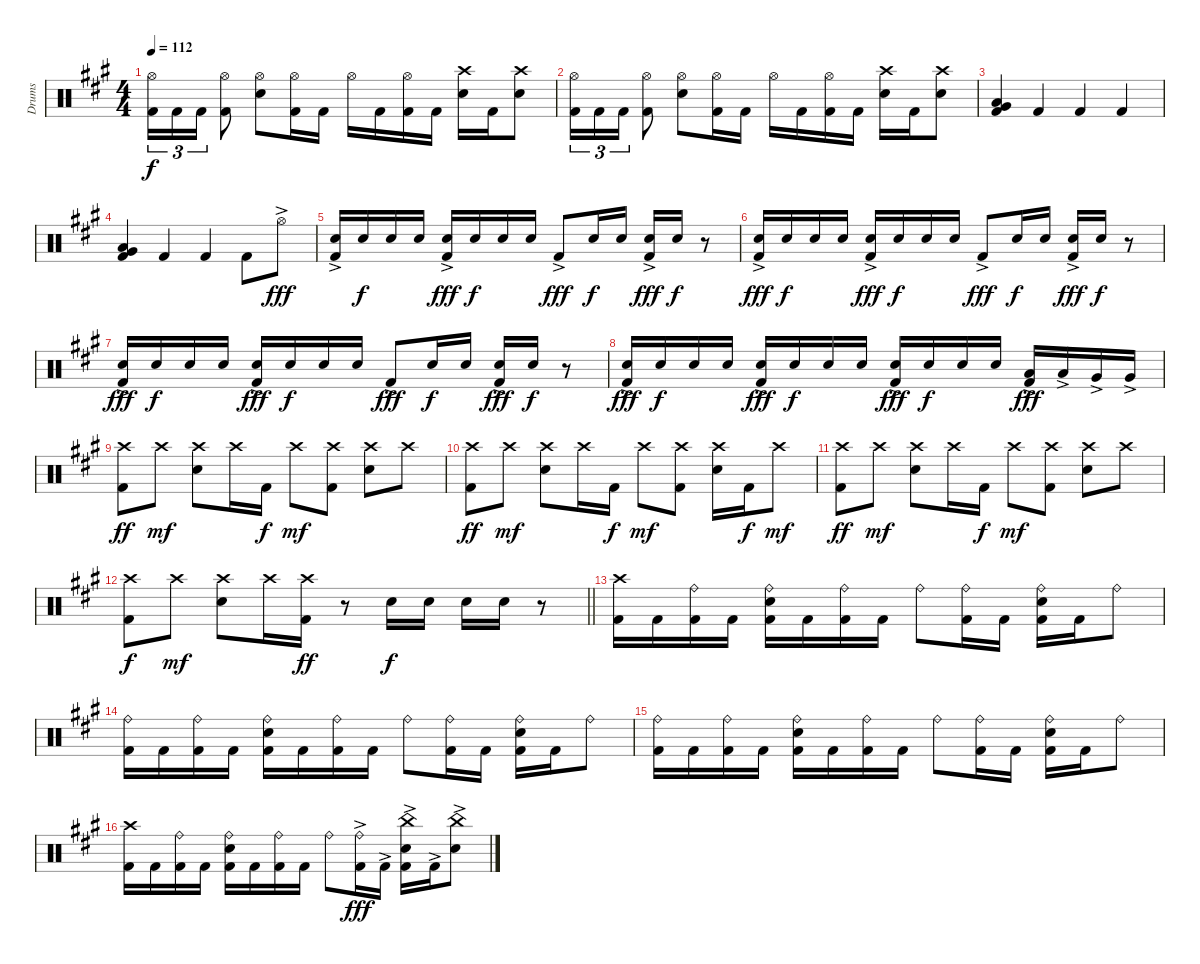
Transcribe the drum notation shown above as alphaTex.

\track ("Drums" "Drums") {instrument percussion}
\staff {score}
\articulation defaults
\ts (4 4)
\tempo 112
\clef neutral
\ks f#minor
("Hi-Hat (open)" "Kick (hit) 2").16{tu (3 2) dy f} "Kick (hit) 2".16{tu (3 2)} "Kick (hit) 2".16{tu (3 2)} ("Hi-Hat (open)" "Kick (hit) 2").8 ("Hi-Hat (open)" "Snare (hit) 2").8 ("Hi-Hat (open)" "Kick (hit) 2").16 "Kick (hit) 2".16 "Hi-Hat (open)".16 "Kick (hit) 2".16 ("Hi-Hat (open)" "Kick (hit) 2").16 "Kick (hit) 2".16 ("Crash high (hit)" "Snare (hit) 2").16 "Kick (hit) 2".16 ("Crash high (hit)" "Snare (hit) 2").8 |
("Hi-Hat (open)" "Kick (hit) 2").16{tu (3 2)} "Kick (hit) 2".16{tu (3 2)} "Kick (hit) 2".16{tu (3 2)} ("Hi-Hat (open)" "Kick (hit) 2").8 ("Hi-Hat (open)" "Snare (hit) 2").8 ("Hi-Hat (open)" "Kick (hit) 2").16 "Kick (hit) 2".16 "Hi-Hat (open)".16 "Kick (hit) 2".16 ("Hi-Hat (open)" "Kick (hit) 2").16 "Kick (hit) 2".16 ("Crash high (hit)" "Snare (hit) 2").16 "Kick (hit) 2".16 ("Crash high (hit)" "Snare (hit) 2").8 |
("Very Low Tom (hit)" "Low Floor Tom (hit)" "Kick (hit) 2").4 "Kick (hit) 2".4 "Kick (hit) 2".4 "Kick (hit) 2".4 |
("Very Low Tom (hit)" "Low Floor Tom (hit)" "Kick (hit) 2").4 "Kick (hit) 2".4 "Kick (hit) 2".4 "Kick (hit) 2".8 "Hi-Hat (open)"{ac}.8{dy fff} |
("Snare (hit) 2" "Kick (hit) 2"{ac}).16 "Snare (hit) 2".16{dy f} "Snare (hit) 2".16 "Snare (hit) 2".16 ("Snare (hit) 2" "Kick (hit) 2"{ac}).16{dy fff} "Snare (hit) 2".16{dy f} "Snare (hit) 2".16 "Snare (hit) 2".16 "Kick (hit) 2"{ac}.8{dy fff} "Snare (hit) 2".16{dy f} "Snare (hit) 2".16 ("Snare (hit) 2" "Kick (hit) 2"{ac}).16{dy fff} "Snare (hit) 2".16{dy f} r.8 |
("Snare (hit) 2" "Kick (hit) 2"{ac}).16{dy fff} "Snare (hit) 2".16{dy f} "Snare (hit) 2".16 "Snare (hit) 2".16 ("Snare (hit) 2" "Kick (hit) 2"{ac}).16{dy fff} "Snare (hit) 2".16{dy f} "Snare (hit) 2".16 "Snare (hit) 2".16 "Kick (hit) 2"{ac}.8{dy fff} "Snare (hit) 2".16{dy f} "Snare (hit) 2".16 ("Snare (hit) 2" "Kick (hit) 2"{ac}).16{dy fff} "Snare (hit) 2".16{dy f} r.8 |
("Snare (hit) 2" "Kick (hit) 2"{ac}).16{dy fff} "Snare (hit) 2".16{dy f} "Snare (hit) 2".16 "Snare (hit) 2".16 ("Snare (hit) 2" "Kick (hit) 2"{ac}).16{dy fff} "Snare (hit) 2".16{dy f} "Snare (hit) 2".16 "Snare (hit) 2".16 "Kick (hit) 2"{ac}.8{dy fff} "Snare (hit) 2".16{dy f} "Snare (hit) 2".16 ("Snare (hit) 2" "Kick (hit) 2"{ac}).16{dy fff} "Snare (hit) 2".16{dy f} r.8 |
("Snare (hit) 2" "Kick (hit) 2"{ac}).16{dy fff} "Snare (hit) 2".16{dy f} "Snare (hit) 2".16 "Snare (hit) 2".16 ("Snare (hit) 2" "Kick (hit) 2"{ac}).16{dy fff} "Snare (hit) 2".16{dy f} "Snare (hit) 2".16 "Snare (hit) 2".16 ("Snare (hit) 2" "Kick (hit) 2"{ac}).16{dy fff} "Snare (hit) 2".16{dy f} "Snare (hit) 2".16 "Snare (hit) 2".16 ("Low Tom (hit)"{ac} "Kick (hit) 2"{ac}).16{dy fff} "Low Tom (hit)"{ac}.16 "Very Low Tom (hit)"{ac}.16 "Very Low Tom (hit)"{ac}.16 |
("Crash high (hit)" "Kick (hit) 2").8{dy ff} "Crash high (hit)".8{dy mf} ("Crash high (hit)" "Snare (hit) 2").8 "Crash high (hit)".16 "Kick (hit) 2".16{dy f} "Crash high (hit)".8{dy mf} ("Crash high (hit)" "Kick (hit) 2").8 ("Crash high (hit)" "Snare (hit) 2").8 "Crash high (hit)".8 |
("Crash high (hit)" "Kick (hit) 2").8{dy ff} "Crash high (hit)".8{dy mf} ("Crash high (hit)" "Snare (hit) 2").8 "Crash high (hit)".16 "Kick (hit) 2".16{dy f} "Crash high (hit)".8{dy mf} ("Crash high (hit)" "Kick (hit) 2").8 ("Crash high (hit)" "Snare (hit) 2").16 "Kick (hit) 2".16{dy f} "Crash high (hit)".8{dy mf} |
("Crash high (hit)" "Kick (hit) 2").8{dy ff} "Crash high (hit)".8{dy mf} ("Crash high (hit)" "Snare (hit) 2").8 "Crash high (hit)".16 "Kick (hit) 2".16{dy f} "Crash high (hit)".8{dy mf} ("Crash high (hit)" "Kick (hit) 2").8 ("Crash high (hit)" "Snare (hit) 2").8 "Crash high (hit)".8 |
\barLineRight lightlight
("Crash high (hit)" "Kick (hit) 2").8{dy f} "Crash high (hit)".8{dy mf} ("Crash high (hit)" "Snare (hit) 2").8 "Crash high (hit)".16 ("Crash high (hit)" "Kick (hit) 2").16{dy ff} r.8 "Snare (hit) 2".16{dy f} "Snare (hit) 2".16 "Snare (hit) 2".16 "Snare (hit) 2".16 r.8 |
("Crash high (hit)" "Kick (hit) 2").16 "Kick (hit) 2".16 ("Ride (bell)" "Kick (hit) 2").16 "Kick (hit) 2".16 ("Ride (bell)" "Snare (hit) 2" "Kick (hit) 2").16 "Kick (hit) 2".16 ("Ride (bell)" "Kick (hit) 2").16 "Kick (hit) 2".16 "Ride (bell)".8 ("Ride (bell)" "Kick (hit) 2").16 "Kick (hit) 2".16 ("Ride (bell)" "Snare (hit) 2" "Kick (hit) 2").16 "Kick (hit) 2".16 "Ride (bell)".8 |
("Ride (bell)" "Kick (hit) 2").16 "Kick (hit) 2".16 ("Ride (bell)" "Kick (hit) 2").16 "Kick (hit) 2".16 ("Ride (bell)" "Snare (hit) 2" "Kick (hit) 2").16 "Kick (hit) 2".16 ("Ride (bell)" "Kick (hit) 2").16 "Kick (hit) 2".16 "Ride (bell)".8 ("Ride (bell)" "Kick (hit) 2").16 "Kick (hit) 2".16 ("Ride (bell)" "Snare (hit) 2" "Kick (hit) 2").16 "Kick (hit) 2".16 "Ride (bell)".8 |
("Ride (bell)" "Kick (hit) 2").16 "Kick (hit) 2".16 ("Ride (bell)" "Kick (hit) 2").16 "Kick (hit) 2".16 ("Ride (bell)" "Snare (hit) 2" "Kick (hit) 2").16 "Kick (hit) 2".16 ("Ride (bell)" "Kick (hit) 2").16 "Kick (hit) 2".16 "Ride (bell)".8 ("Ride (bell)" "Kick (hit) 2").16 "Kick (hit) 2".16 ("Ride (bell)" "Snare (hit) 2" "Kick (hit) 2").16 "Kick (hit) 2".16 "Ride (bell)".8 |
("Crash high (hit)" "Kick (hit) 2").16 "Kick (hit) 2".16 ("Ride (bell)" "Kick (hit) 2").16 "Kick (hit) 2".16 ("Ride (bell)" "Snare (hit) 2" "Kick (hit) 2").16 "Kick (hit) 2".16 ("Ride (bell)" "Kick (hit) 2").16 "Kick (hit) 2".16 "Ride (bell)".8 ("Ride (bell)" "Kick (hit) 2"{ac}).16{dy fff} "Kick (hit) 2"{ac}.16 ("China (hit)"{ac} "Snare (hit) 2" "Kick (hit) 2").16 "Kick (hit) 2"{ac}.16 ("China (hit)"{ac} "Snare (hit) 2").8
